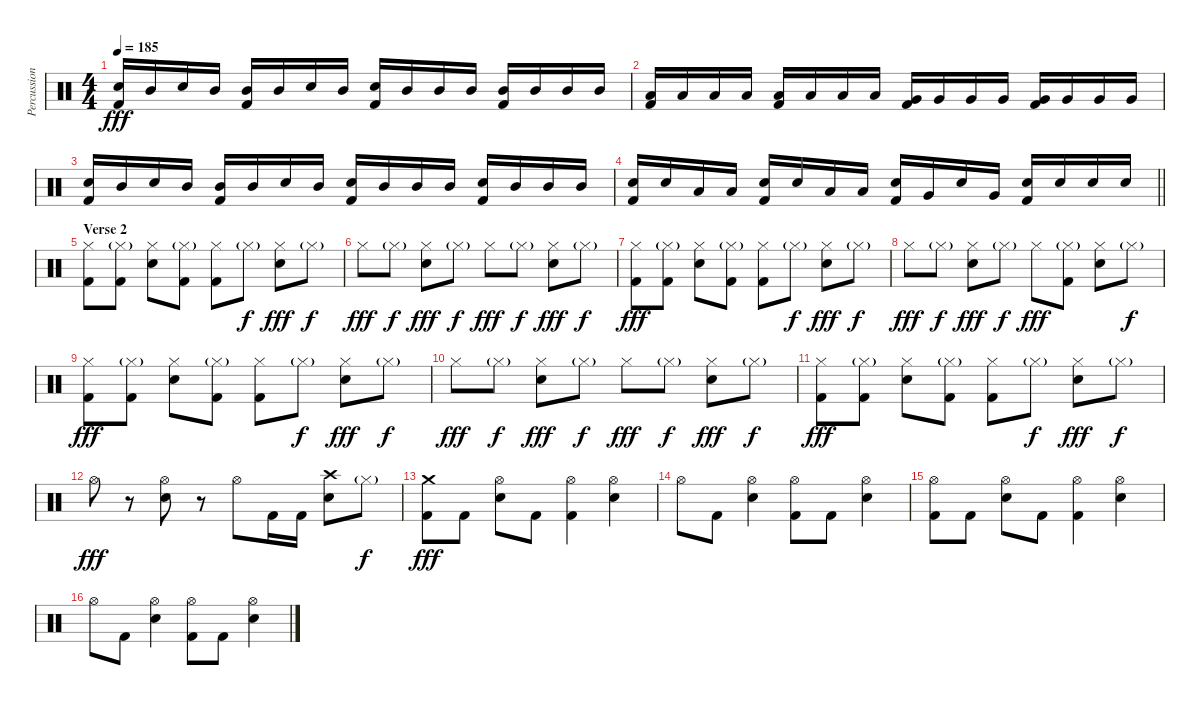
\track ("Percussion" "Percussion") {instrument percussion}
\staff {score}
\articulation defaults
\ts (4 4)
\tempo 185
\clef neutral
\ks c
("Snare (hit) 2" "Kick (hit) 2").16{dy fff} "Mid Tom (hit)".16 "Snare (hit) 2".16 "Mid Tom (hit)".16 ("Mid Tom (hit)" "Kick (hit) 2").16 "Mid Tom (hit)".16 "Snare (hit) 2".16 "Mid Tom (hit)".16 ("Snare (hit) 2" "Kick (hit) 2").16 "Mid Tom (hit)".16 "Mid Tom (hit)".16 "Mid Tom (hit)".16 ("Mid Tom (hit)" "Kick (hit) 2").16 "Mid Tom (hit)".16 "Mid Tom (hit)".16 "Mid Tom (hit)".16 |
("Low Tom (hit)" "Kick (hit) 2").16 "Low Tom (hit)".16 "Low Tom (hit)".16 "Low Tom (hit)".16 ("Low Tom (hit)" "Kick (hit) 2").16 "Low Tom (hit)".16 "Low Tom (hit)".16 "Low Tom (hit)".16 ("Very Low Tom (hit)" "Kick (hit) 2").16 "Very Low Tom (hit)".16 "Very Low Tom (hit)".16 "Very Low Tom (hit)".16 ("Very Low Tom (hit)" "Kick (hit) 2").16 "Very Low Tom (hit)".16 "Very Low Tom (hit)".16 "Very Low Tom (hit)".16 |
("Snare (hit) 2" "Kick (hit) 2").16 "Mid Tom (hit)".16 "Snare (hit) 2".16 "Mid Tom (hit)".16 ("Mid Tom (hit)" "Kick (hit) 2").16 "Mid Tom (hit)".16 "Snare (hit) 2".16 "Mid Tom (hit)".16 ("Snare (hit) 2" "Kick (hit) 2").16 "Mid Tom (hit)".16 "Mid Tom (hit)".16 "Mid Tom (hit)".16 ("Snare (hit) 2" "Kick (hit) 2").16 "Mid Tom (hit)".16 "Mid Tom (hit)".16 "Mid Tom (hit)".16 |
\barLineRight lightlight
("Snare (hit) 2" "Kick (hit) 2").16 "Snare (hit) 2".16 "Low Tom (hit)".16 "Low Tom (hit)".16 ("Snare (hit) 2" "Kick (hit) 2").16 "Snare (hit) 2".16 "Low Tom (hit)".16 "Low Tom (hit)".16 ("Snare (hit) 2" "Kick (hit) 2").16 "Very Low Tom (hit)".16 "Snare (hit) 2".16 "Very Low Tom (hit)".16 ("Snare (hit) 2" "Kick (hit) 2").16 "Snare (hit) 2".16 "Snare (hit) 2".16 "Snare (hit) 2".16 |
\section ("" "Verse 2")
("Hi-Hat (closed)" "Kick (hit) 2").8 ("Hi-Hat (closed)"{g} "Kick (hit) 2").8 ("Hi-Hat (closed)" "Snare (hit) 2").8 ("Hi-Hat (closed)"{g} "Kick (hit) 2").8 ("Hi-Hat (closed)" "Kick (hit) 2").8 "Hi-Hat (closed)"{g}.8{dy f} ("Hi-Hat (closed)" "Snare (hit) 2").8{dy fff} "Hi-Hat (closed)"{g}.8{dy f} |
"Hi-Hat (closed)".8{dy fff} "Hi-Hat (closed)"{g}.8{dy f} ("Hi-Hat (closed)" "Snare (hit) 2").8{dy fff} "Hi-Hat (closed)"{g}.8{dy f} "Hi-Hat (closed)".8{dy fff} "Hi-Hat (closed)"{g}.8{dy f} ("Hi-Hat (closed)" "Snare (hit) 2").8{dy fff} "Hi-Hat (closed)"{g}.8{dy f} |
("Hi-Hat (closed)" "Kick (hit) 2").8{dy fff} ("Hi-Hat (closed)"{g} "Kick (hit) 2").8 ("Hi-Hat (closed)" "Snare (hit) 2").8 ("Hi-Hat (closed)"{g} "Kick (hit) 2").8 ("Hi-Hat (closed)" "Kick (hit) 2").8 "Hi-Hat (closed)"{g}.8{dy f} ("Hi-Hat (closed)" "Snare (hit) 2").8{dy fff} "Hi-Hat (closed)"{g}.8{dy f} |
"Hi-Hat (closed)".8{dy fff} "Hi-Hat (closed)"{g}.8{dy f} ("Hi-Hat (closed)" "Snare (hit) 2").8{dy fff} "Hi-Hat (closed)"{g}.8{dy f} "Hi-Hat (closed)".8{dy fff} ("Hi-Hat (closed)"{g} "Kick (hit) 2").8 ("Hi-Hat (closed)" "Snare (hit) 2").8 "Hi-Hat (closed)"{g}.8{dy f} |
("Hi-Hat (closed)" "Kick (hit) 2").8{dy fff} ("Hi-Hat (closed)"{g} "Kick (hit) 2").8 ("Hi-Hat (closed)" "Snare (hit) 2").8 ("Hi-Hat (closed)"{g} "Kick (hit) 2").8 ("Hi-Hat (closed)" "Kick (hit) 2").8 "Hi-Hat (closed)"{g}.8{dy f} ("Hi-Hat (closed)" "Snare (hit) 2").8{dy fff} "Hi-Hat (closed)"{g}.8{dy f} |
"Hi-Hat (closed)".8{dy fff} "Hi-Hat (closed)"{g}.8{dy f} ("Hi-Hat (closed)" "Snare (hit) 2").8{dy fff} "Hi-Hat (closed)"{g}.8{dy f} "Hi-Hat (closed)".8{dy fff} "Hi-Hat (closed)"{g}.8{dy f} ("Hi-Hat (closed)" "Snare (hit) 2").8{dy fff} "Hi-Hat (closed)"{g}.8{dy f} |
("Hi-Hat (closed)" "Kick (hit) 2").8{dy fff} ("Hi-Hat (closed)"{g} "Kick (hit) 2").8 ("Hi-Hat (closed)" "Snare (hit) 2").8 ("Hi-Hat (closed)"{g} "Kick (hit) 2").8 ("Hi-Hat (closed)" "Kick (hit) 2").8 "Hi-Hat (closed)"{g}.8{dy f} ("Hi-Hat (closed)" "Snare (hit) 2").8{dy fff} "Hi-Hat (closed)"{g}.8{dy f} |
"Hi-Hat (open)".8{dy fff} r.8 ("Hi-Hat (open)" "Snare (hit) 2").8 r.8 "Hi-Hat (open)".8 "Kick (hit) 2".16 "Kick (hit) 2".16 ("Crash high (hit)" "Snare (hit) 2").8 "Hi-Hat (closed)"{g}.8{dy f} |
("Crash medium (hit)" "Kick (hit) 2").8{dy fff} "Kick (hit) 2".8 ("Hi-Hat (open)" "Snare (hit) 2").8 "Kick (hit) 2".8 ("Hi-Hat (open)" "Kick (hit) 2").4 ("Hi-Hat (open)" "Snare (hit) 2").4 |
"Hi-Hat (open)".8 "Kick (hit) 2".8 ("Hi-Hat (open)" "Snare (hit) 2").4 ("Hi-Hat (open)" "Kick (hit) 2").8 "Kick (hit) 2".8 ("Hi-Hat (open)" "Snare (hit) 2").4 |
("Hi-Hat (open)" "Kick (hit) 2").8 "Kick (hit) 2".8 ("Hi-Hat (open)" "Snare (hit) 2").8 "Kick (hit) 2".8 ("Hi-Hat (open)" "Kick (hit) 2").4 ("Hi-Hat (open)" "Snare (hit) 2").4 |
"Hi-Hat (open)".8 "Kick (hit) 2".8 ("Hi-Hat (open)" "Snare (hit) 2").4 ("Hi-Hat (open)" "Kick (hit) 2").8 "Kick (hit) 2".8 ("Hi-Hat (open)" "Snare (hit) 2").4
